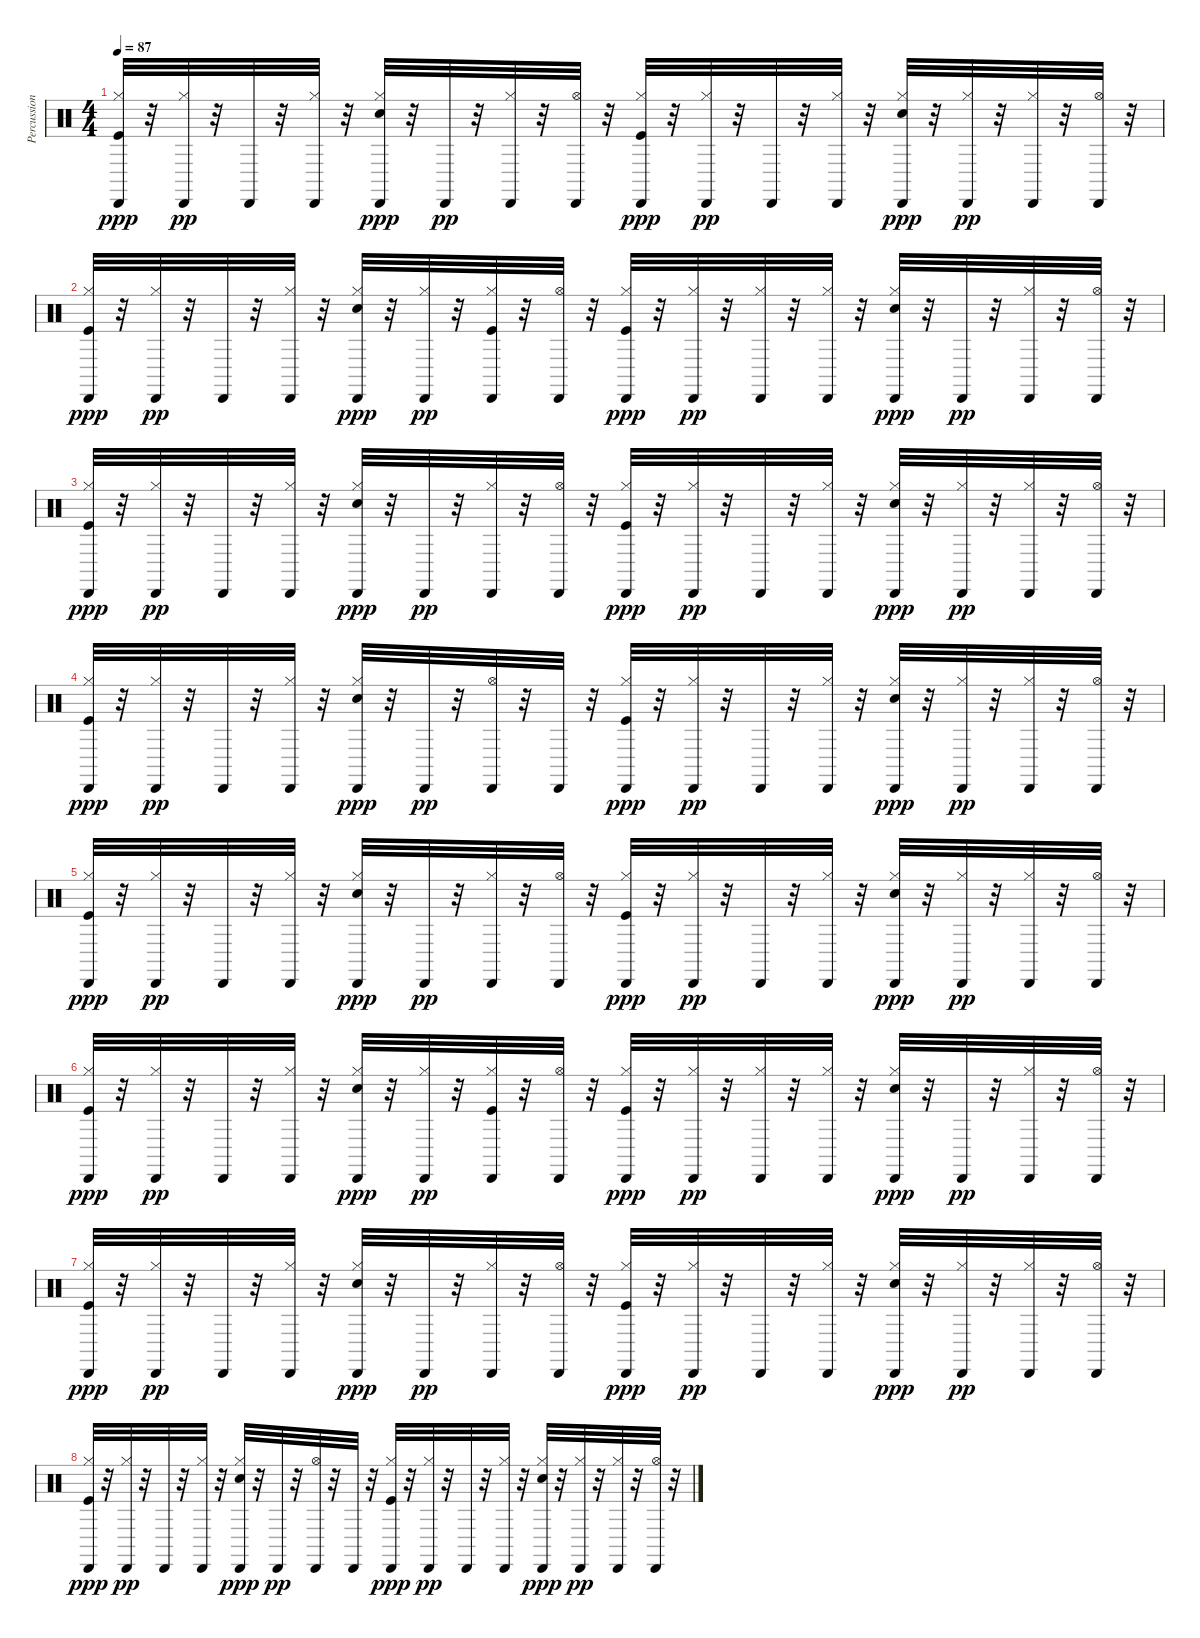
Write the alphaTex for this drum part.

\track ("Percussion" "Percussion") {instrument percussion}
\staff {score}
\articulation defaults
\ts (4 4)
\tempo 87
\clef neutral
\ks c
("Kick (hit)" "Hi-Hat (closed)" "Cabasa (hit)").32{dy ppp} r.32 ("Hi-Hat (closed)" "Cabasa (hit)").32{dy pp} r.32 "Cabasa (hit)".32 r.32 ("Hi-Hat (closed)" "Cabasa (hit)").32 r.32 ("Snare (hit) 2" "Hi-Hat (closed)" "Cabasa (hit)").32{dy ppp} r.32 "Cabasa (hit)".32{dy pp} r.32 ("Hi-Hat (closed)" "Cabasa (hit)").32 r.32 ("Hi-Hat (open)" "Cabasa (hit)").32 r.32 ("Kick (hit)" "Hi-Hat (closed)" "Cabasa (hit)").32{dy ppp} r.32 ("Hi-Hat (closed)" "Cabasa (hit)").32{dy pp} r.32 "Cabasa (hit)".32 r.32 ("Hi-Hat (closed)" "Cabasa (hit)").32 r.32 ("Snare (hit) 2" "Hi-Hat (closed)" "Cabasa (hit)").32{dy ppp} r.32 ("Hi-Hat (closed)" "Cabasa (hit)").32{dy pp} r.32 ("Hi-Hat (closed)" "Cabasa (hit)").32 r.32 ("Hi-Hat (open)" "Cabasa (hit)").32 r.32 |
("Kick (hit)" "Hi-Hat (closed)" "Cabasa (hit)").32{dy ppp} r.32 ("Hi-Hat (closed)" "Cabasa (hit)").32{dy pp} r.32 "Cabasa (hit)".32 r.32 ("Hi-Hat (closed)" "Cabasa (hit)").32 r.32 ("Snare (hit) 2" "Hi-Hat (closed)" "Cabasa (hit)").32{dy ppp} r.32 ("Hi-Hat (closed)" "Cabasa (hit)").32{dy pp} r.32 ("Kick (hit)" "Hi-Hat (closed)" "Cabasa (hit)").32 r.32 ("Hi-Hat (open)" "Cabasa (hit)").32 r.32 ("Kick (hit)" "Hi-Hat (closed)" "Cabasa (hit)").32{dy ppp} r.32 ("Hi-Hat (closed)" "Cabasa (hit)").32{dy pp} r.32 ("Hi-Hat (closed)" "Cabasa (hit)").32 r.32 ("Hi-Hat (closed)" "Cabasa (hit)").32 r.32 ("Snare (hit) 2" "Hi-Hat (closed)" "Cabasa (hit)").32{dy ppp} r.32 "Cabasa (hit)".32{dy pp} r.32 ("Hi-Hat (closed)" "Cabasa (hit)").32 r.32 ("Hi-Hat (open)" "Cabasa (hit)").32 r.32 |
("Kick (hit)" "Hi-Hat (closed)" "Cabasa (hit)").32{dy ppp} r.32 ("Hi-Hat (closed)" "Cabasa (hit)").32{dy pp} r.32 "Cabasa (hit)".32 r.32 ("Hi-Hat (closed)" "Cabasa (hit)").32 r.32 ("Snare (hit) 2" "Hi-Hat (closed)" "Cabasa (hit)").32{dy ppp} r.32 "Cabasa (hit)".32{dy pp} r.32 ("Hi-Hat (closed)" "Cabasa (hit)").32 r.32 ("Hi-Hat (open)" "Cabasa (hit)").32 r.32 ("Kick (hit)" "Hi-Hat (closed)" "Cabasa (hit)").32{dy ppp} r.32 ("Hi-Hat (closed)" "Cabasa (hit)").32{dy pp} r.32 "Cabasa (hit)".32 r.32 ("Hi-Hat (closed)" "Cabasa (hit)").32 r.32 ("Snare (hit) 2" "Hi-Hat (closed)" "Cabasa (hit)").32{dy ppp} r.32 ("Hi-Hat (closed)" "Cabasa (hit)").32{dy pp} r.32 ("Hi-Hat (closed)" "Cabasa (hit)").32 r.32 ("Hi-Hat (open)" "Cabasa (hit)").32 r.32 |
("Kick (hit)" "Hi-Hat (closed)" "Cabasa (hit)").32{dy ppp} r.32 ("Hi-Hat (closed)" "Cabasa (hit)").32{dy pp} r.32 "Cabasa (hit)".32 r.32 ("Hi-Hat (closed)" "Cabasa (hit)").32 r.32 ("Snare (hit) 2" "Hi-Hat (closed)" "Cabasa (hit)").32{dy ppp} r.32 "Cabasa (hit)".32{dy pp} r.32 ("Hi-Hat (open)" "Cabasa (hit)").32 r.32 "Cabasa (hit)".32 r.32 ("Kick (hit)" "Hi-Hat (closed)" "Cabasa (hit)").32{dy ppp} r.32 ("Hi-Hat (closed)" "Cabasa (hit)").32{dy pp} r.32 "Cabasa (hit)".32 r.32 ("Hi-Hat (closed)" "Cabasa (hit)").32 r.32 ("Snare (hit) 2" "Hi-Hat (closed)" "Cabasa (hit)").32{dy ppp} r.32 ("Hi-Hat (closed)" "Cabasa (hit)").32{dy pp} r.32 ("Hi-Hat (closed)" "Cabasa (hit)").32 r.32 ("Hi-Hat (open)" "Cabasa (hit)").32 r.32 |
("Kick (hit)" "Hi-Hat (closed)" "Cabasa (hit)").32{dy ppp} r.32 ("Hi-Hat (closed)" "Cabasa (hit)").32{dy pp} r.32 "Cabasa (hit)".32 r.32 ("Hi-Hat (closed)" "Cabasa (hit)").32 r.32 ("Snare (hit) 2" "Hi-Hat (closed)" "Cabasa (hit)").32{dy ppp} r.32 "Cabasa (hit)".32{dy pp} r.32 ("Hi-Hat (closed)" "Cabasa (hit)").32 r.32 ("Hi-Hat (open)" "Cabasa (hit)").32 r.32 ("Kick (hit)" "Hi-Hat (closed)" "Cabasa (hit)").32{dy ppp} r.32 ("Hi-Hat (closed)" "Cabasa (hit)").32{dy pp} r.32 "Cabasa (hit)".32 r.32 ("Hi-Hat (closed)" "Cabasa (hit)").32 r.32 ("Snare (hit) 2" "Hi-Hat (closed)" "Cabasa (hit)").32{dy ppp} r.32 ("Hi-Hat (closed)" "Cabasa (hit)").32{dy pp} r.32 ("Hi-Hat (closed)" "Cabasa (hit)").32 r.32 ("Hi-Hat (open)" "Cabasa (hit)").32 r.32 |
("Kick (hit)" "Hi-Hat (closed)" "Cabasa (hit)").32{dy ppp} r.32 ("Hi-Hat (closed)" "Cabasa (hit)").32{dy pp} r.32 "Cabasa (hit)".32 r.32 ("Hi-Hat (closed)" "Cabasa (hit)").32 r.32 ("Snare (hit) 2" "Hi-Hat (closed)" "Cabasa (hit)").32{dy ppp} r.32 ("Hi-Hat (closed)" "Cabasa (hit)").32{dy pp} r.32 ("Kick (hit)" "Hi-Hat (closed)" "Cabasa (hit)").32 r.32 ("Hi-Hat (open)" "Cabasa (hit)").32 r.32 ("Kick (hit)" "Hi-Hat (closed)" "Cabasa (hit)").32{dy ppp} r.32 ("Hi-Hat (closed)" "Cabasa (hit)").32{dy pp} r.32 ("Hi-Hat (closed)" "Cabasa (hit)").32 r.32 ("Hi-Hat (closed)" "Cabasa (hit)").32 r.32 ("Snare (hit) 2" "Hi-Hat (closed)" "Cabasa (hit)").32{dy ppp} r.32 "Cabasa (hit)".32{dy pp} r.32 ("Hi-Hat (closed)" "Cabasa (hit)").32 r.32 ("Hi-Hat (open)" "Cabasa (hit)").32 r.32 |
("Kick (hit)" "Hi-Hat (closed)" "Cabasa (hit)").32{dy ppp} r.32 ("Hi-Hat (closed)" "Cabasa (hit)").32{dy pp} r.32 "Cabasa (hit)".32 r.32 ("Hi-Hat (closed)" "Cabasa (hit)").32 r.32 ("Snare (hit) 2" "Hi-Hat (closed)" "Cabasa (hit)").32{dy ppp} r.32 "Cabasa (hit)".32{dy pp} r.32 ("Hi-Hat (closed)" "Cabasa (hit)").32 r.32 ("Hi-Hat (open)" "Cabasa (hit)").32 r.32 ("Kick (hit)" "Hi-Hat (closed)" "Cabasa (hit)").32{dy ppp} r.32 ("Hi-Hat (closed)" "Cabasa (hit)").32{dy pp} r.32 "Cabasa (hit)".32 r.32 ("Hi-Hat (closed)" "Cabasa (hit)").32 r.32 ("Snare (hit) 2" "Hi-Hat (closed)" "Cabasa (hit)").32{dy ppp} r.32 ("Hi-Hat (closed)" "Cabasa (hit)").32{dy pp} r.32 ("Hi-Hat (closed)" "Cabasa (hit)").32 r.32 ("Hi-Hat (open)" "Cabasa (hit)").32 r.32 |
("Kick (hit)" "Hi-Hat (closed)" "Cabasa (hit)").32{dy ppp} r.32 ("Hi-Hat (closed)" "Cabasa (hit)").32{dy pp} r.32 "Cabasa (hit)".32 r.32 ("Hi-Hat (closed)" "Cabasa (hit)").32 r.32 ("Snare (hit) 2" "Hi-Hat (closed)" "Cabasa (hit)").32{dy ppp} r.32 "Cabasa (hit)".32{dy pp} r.32 ("Hi-Hat (open)" "Cabasa (hit)").32 r.32 "Cabasa (hit)".32 r.32 ("Kick (hit)" "Hi-Hat (closed)" "Cabasa (hit)").32{dy ppp} r.32 ("Hi-Hat (closed)" "Cabasa (hit)").32{dy pp} r.32 "Cabasa (hit)".32 r.32 ("Hi-Hat (closed)" "Cabasa (hit)").32 r.32 ("Snare (hit) 2" "Hi-Hat (closed)" "Cabasa (hit)").32{dy ppp} r.32 ("Hi-Hat (closed)" "Cabasa (hit)").32{dy pp} r.32 ("Hi-Hat (closed)" "Cabasa (hit)").32 r.32 ("Hi-Hat (open)" "Cabasa (hit)").32 r.32
